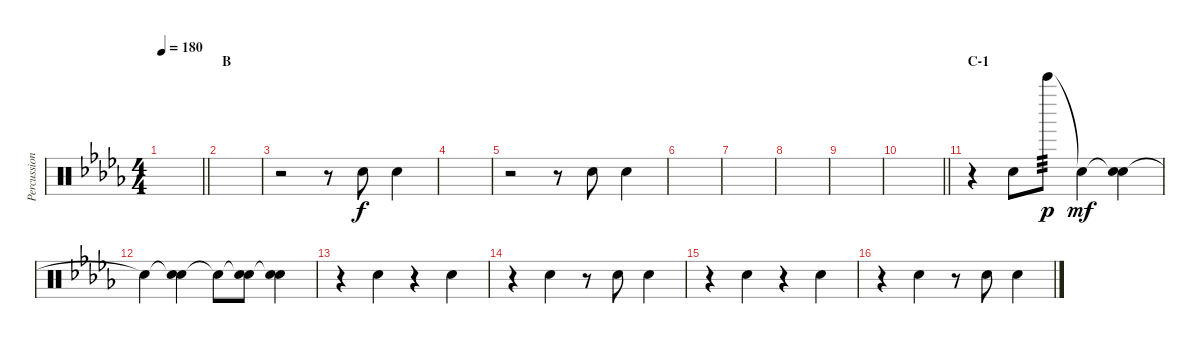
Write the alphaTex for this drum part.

\track ("Percussion I (Tainaka Ritsu)" "Percussion") {instrument percussion}
\staff {score}
\articulation defaults
\ts (4 4)
\tempo 180
\clef neutral
\barLineRight lightlight
\ks db
|
\section ("" "B")
|
r.2 r.8 "Hand Clap (hit)".8 "Hand Clap (hit)".4 |
|
r.2 r.8 "Hand Clap (hit)".8 "Hand Clap (hit)".4 |
|
|
|
|
\barLineRight lightlight
|
\section ("" "C-1")
r.4 "Hand Clap (hit)".8 "Bell Tree (hit)".8{tp 3 dy p} "Snare (hit)"{t}.4{dy mf} ("Snare (hit)"{t} "Hand Clap (hit)").4 |
"Snare (hit)"{t}.4 ("Snare (hit)"{t} "Hand Clap (hit)").4 "Snare (hit)"{t}.8 ("Snare (hit)"{t} "Hand Clap (hit)").8 ("Snare (hit)"{t} "Hand Clap (hit)").4 |
r.4 "Hand Clap (hit)".4 r.4 "Hand Clap (hit)".4 |
r.4 "Hand Clap (hit)".4 r.8 "Hand Clap (hit)".8 "Hand Clap (hit)".4 |
r.4 "Hand Clap (hit)".4 r.4 "Hand Clap (hit)".4 |
r.4 "Hand Clap (hit)".4 r.8 "Hand Clap (hit)".8 "Hand Clap (hit)".4
